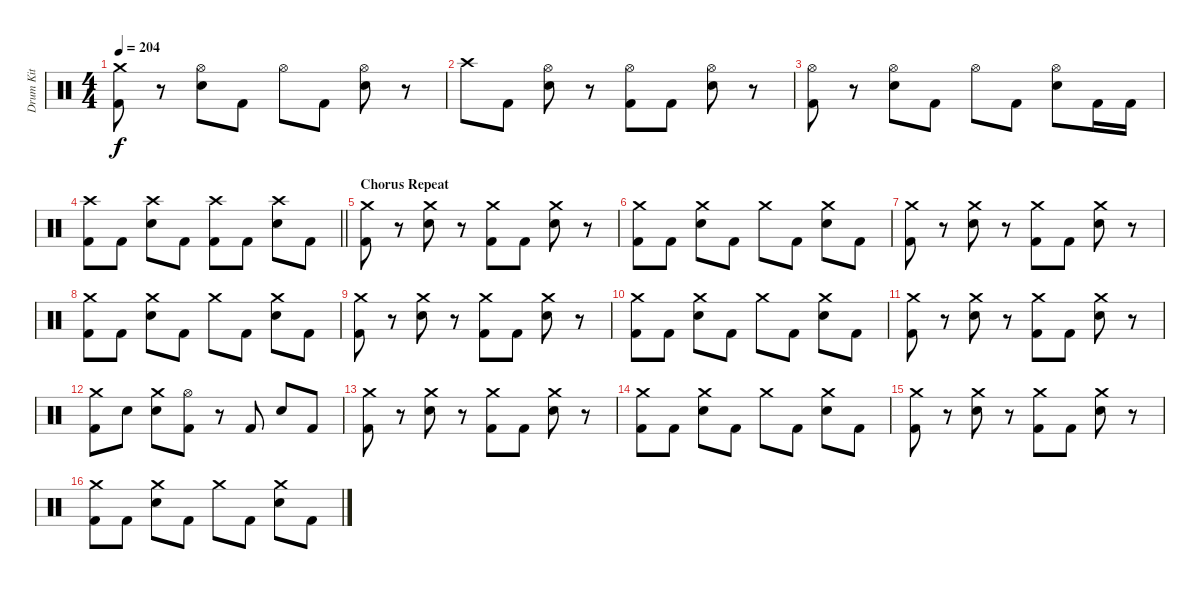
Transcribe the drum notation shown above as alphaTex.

\track ("Drum Kit" "Drum Kit") {instrument percussion}
\staff {score}
\articulation defaults
\ts (4 4)
\tempo 204
\clef neutral
\ks c
("Crash medium (hit)" "Kick (hit) 2").8{dy f} r.8 ("Hi-Hat (open)" "Snare (hit) 2").8 "Kick (hit) 2".8 "Hi-Hat (open)".8 "Kick (hit) 2".8 ("Hi-Hat (open)" "Snare (hit) 2").8 r.8 |
"Crash high (hit)".8 "Kick (hit) 2".8 ("Hi-Hat (open)" "Snare (hit) 2").8 r.8 ("Hi-Hat (open)" "Kick (hit) 2").8 "Kick (hit) 2".8 ("Hi-Hat (open)" "Snare (hit) 2").8 r.8 |
("Hi-Hat (open)" "Kick (hit) 2").8 r.8 ("Hi-Hat (open)" "Snare (hit) 2").8 "Kick (hit) 2".8 "Hi-Hat (open)".8 "Kick (hit) 2".8 ("Hi-Hat (open)" "Snare (hit) 2").8 "Kick (hit) 2".16 "Kick (hit) 2".16 |
\barLineRight lightlight
("Crash high (hit)" "Kick (hit) 2").8 "Kick (hit) 2".8 ("Crash high (hit)" "Snare (hit) 2").8 "Kick (hit) 2".8 ("Crash high (hit)" "Kick (hit) 2").8 "Kick (hit) 2".8 ("Crash high (hit)" "Snare (hit) 2").8 "Kick (hit) 2".8 |
\section ("" "Chorus Repeat")
("Crash medium (hit)" "Kick (hit) 2").8 r.8 ("Crash medium (hit)" "Snare (hit) 2").8 r.8 ("Crash medium (hit)" "Kick (hit) 2").8 "Kick (hit) 2".8 ("Crash medium (hit)" "Snare (hit) 2").8 r.8 |
("Crash medium (hit)" "Kick (hit) 2").8 "Kick (hit) 2".8 ("Crash medium (hit)" "Snare (hit) 2").8 "Kick (hit) 2".8 "Crash medium (hit)".8 "Kick (hit) 2".8 ("Crash medium (hit)" "Snare (hit) 2").8 "Kick (hit) 2".8 |
("Crash medium (hit)" "Kick (hit) 2").8 r.8 ("Crash medium (hit)" "Snare (hit) 2").8 r.8 ("Crash medium (hit)" "Kick (hit) 2").8 "Kick (hit) 2".8 ("Crash medium (hit)" "Snare (hit) 2").8 r.8 |
("Crash medium (hit)" "Kick (hit) 2").8 "Kick (hit) 2".8 ("Crash medium (hit)" "Snare (hit) 2").8 "Kick (hit) 2".8 "Crash medium (hit)".8 "Kick (hit) 2".8 ("Crash medium (hit)" "Snare (hit) 2").8 "Kick (hit) 2".8 |
("Crash medium (hit)" "Kick (hit) 2").8 r.8 ("Crash medium (hit)" "Snare (hit) 2").8 r.8 ("Crash medium (hit)" "Kick (hit) 2").8 "Kick (hit) 2".8 ("Crash medium (hit)" "Snare (hit) 2").8 r.8 |
("Crash medium (hit)" "Kick (hit) 2").8 "Kick (hit) 2".8 ("Crash medium (hit)" "Snare (hit) 2").8 "Kick (hit) 2".8 "Crash medium (hit)".8 "Kick (hit) 2".8 ("Crash medium (hit)" "Snare (hit) 2").8 "Kick (hit) 2".8 |
("Crash medium (hit)" "Kick (hit) 2").8 r.8 ("Crash medium (hit)" "Snare (hit) 2").8 r.8 ("Crash medium (hit)" "Kick (hit) 2").8 "Kick (hit) 2".8 ("Crash medium (hit)" "Snare (hit) 2").8 r.8 |
("Crash medium (hit)" "Kick (hit) 2").8 "Snare (hit) 2".8 ("Crash medium (hit)" "Snare (hit) 2").8 ("Hi-Hat (open)" "Kick (hit) 2").8 r.8 "Kick (hit) 2".8 "Snare (hit) 2".8 "Kick (hit) 2".8 |
("Crash medium (hit)" "Kick (hit) 2").8 r.8 ("Crash medium (hit)" "Snare (hit) 2").8 r.8 ("Crash medium (hit)" "Kick (hit) 2").8 "Kick (hit) 2".8 ("Crash medium (hit)" "Snare (hit) 2").8 r.8 |
("Crash medium (hit)" "Kick (hit) 2").8 "Kick (hit) 2".8 ("Crash medium (hit)" "Snare (hit) 2").8 "Kick (hit) 2".8 "Crash medium (hit)".8 "Kick (hit) 2".8 ("Crash medium (hit)" "Snare (hit) 2").8 "Kick (hit) 2".8 |
("Crash medium (hit)" "Kick (hit) 2").8 r.8 ("Crash medium (hit)" "Snare (hit) 2").8 r.8 ("Crash medium (hit)" "Kick (hit) 2").8 "Kick (hit) 2".8 ("Crash medium (hit)" "Snare (hit) 2").8 r.8 |
("Crash medium (hit)" "Kick (hit) 2").8 "Kick (hit) 2".8 ("Crash medium (hit)" "Snare (hit) 2").8 "Kick (hit) 2".8 "Crash medium (hit)".8 "Kick (hit) 2".8 ("Crash medium (hit)" "Snare (hit) 2").8 "Kick (hit) 2".8
